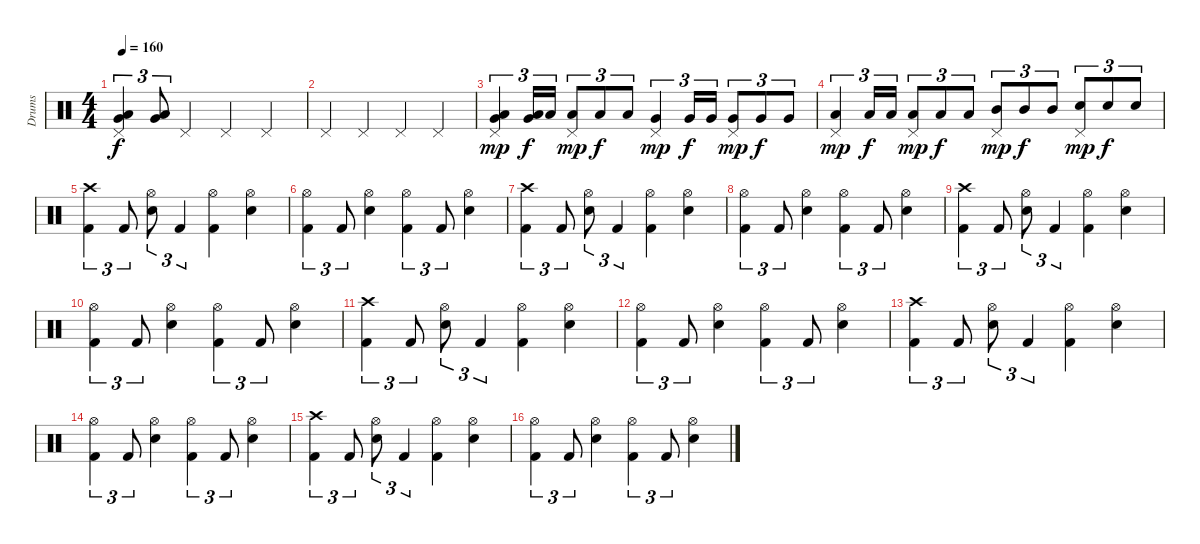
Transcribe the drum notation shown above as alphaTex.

\track ("Drums" "Drums") {instrument percussion}
\staff {score}
\articulation defaults
\ts (4 4)
\tempo 160
\clef neutral
\ks c
("Very Low Tom (hit)" "Low Floor Tom (hit)" "Pedal Hi-Hat (hit)").4{tu (3 2) dy f} ("Very Low Tom (hit)" "Low Floor Tom (hit)").8{tu (3 2)} "Pedal Hi-Hat (hit)".4 "Pedal Hi-Hat (hit)".4 "Pedal Hi-Hat (hit)".4 |
"Pedal Hi-Hat (hit)".4 "Pedal Hi-Hat (hit)".4 "Pedal Hi-Hat (hit)".4 "Pedal Hi-Hat (hit)".4 |
("Very Low Tom (hit)" "Low Floor Tom (hit)" "Pedal Hi-Hat (hit)").4{tu (3 2) dy mp} ("Very Low Tom (hit)" "Low Floor Tom (hit)").16{tu (3 2) dy f} "Low Floor Tom (hit)".16{tu (3 2)} ("Low Floor Tom (hit)" "Pedal Hi-Hat (hit)").8{tu (3 2) dy mp} "Low Floor Tom (hit)".8{tu (3 2) dy f} "Low Floor Tom (hit)".8{tu (3 2)} ("Very Low Tom (hit)" "Pedal Hi-Hat (hit)").4{tu (3 2) dy mp} "Very Low Tom (hit)".16{tu (3 2) dy f} "Very Low Tom (hit)".16{tu (3 2)} ("Very Low Tom (hit)" "Pedal Hi-Hat (hit)").8{tu (3 2) dy mp} "Very Low Tom (hit)".8{tu (3 2) dy f} "Very Low Tom (hit)".8{tu (3 2)} |
("Low Tom (hit)" "Pedal Hi-Hat (hit)").4{tu (3 2) dy mp} "Low Tom (hit)".16{tu (3 2) dy f} "Low Tom (hit)".16{tu (3 2)} ("Low Tom (hit)" "Pedal Hi-Hat (hit)").8{tu (3 2) dy mp} "Low Tom (hit)".8{tu (3 2) dy f} "Low Tom (hit)".8{tu (3 2)} ("Mid Tom (hit)" "Pedal Hi-Hat (hit)").8{tu (3 2) dy mp} "Mid Tom (hit)".8{tu (3 2) dy f} "Mid Tom (hit)".8{tu (3 2)} ("Snare (hit) 2" "Pedal Hi-Hat (hit)").8{tu (3 2) dy mp} "Snare (hit) 2".8{tu (3 2) dy f} "Snare (hit) 2".8{tu (3 2)} |
("Crash high (hit)" "Kick (hit) 2").4{tu (3 2)} "Kick (hit) 2".8{tu (3 2)} ("Hi-Hat (open)" "Snare (hit) 2").8{tu (3 2)} "Kick (hit) 2".4{tu (3 2)} ("Hi-Hat (open)" "Kick (hit) 2").4 ("Hi-Hat (open)" "Snare (hit) 2").4 |
("Hi-Hat (open)" "Kick (hit) 2").4{tu (3 2)} "Kick (hit) 2".8{tu (3 2)} ("Hi-Hat (open)" "Snare (hit) 2").4 ("Hi-Hat (open)" "Kick (hit) 2").4{tu (3 2)} "Kick (hit) 2".8{tu (3 2)} ("Hi-Hat (open)" "Snare (hit) 2").4 |
("Crash high (hit)" "Kick (hit) 2").4{tu (3 2)} "Kick (hit) 2".8{tu (3 2)} ("Hi-Hat (open)" "Snare (hit) 2").8{tu (3 2)} "Kick (hit) 2".4{tu (3 2)} ("Hi-Hat (open)" "Kick (hit) 2").4 ("Hi-Hat (open)" "Snare (hit) 2").4 |
("Hi-Hat (open)" "Kick (hit) 2").4{tu (3 2)} "Kick (hit) 2".8{tu (3 2)} ("Hi-Hat (open)" "Snare (hit) 2").4 ("Hi-Hat (open)" "Kick (hit) 2").4{tu (3 2)} "Kick (hit) 2".8{tu (3 2)} ("Hi-Hat (open)" "Snare (hit) 2").4 |
("Crash high (hit)" "Kick (hit) 2").4{tu (3 2)} "Kick (hit) 2".8{tu (3 2)} ("Hi-Hat (open)" "Snare (hit) 2").8{tu (3 2)} "Kick (hit) 2".4{tu (3 2)} ("Hi-Hat (open)" "Kick (hit) 2").4 ("Hi-Hat (open)" "Snare (hit) 2").4 |
("Hi-Hat (open)" "Kick (hit) 2").4{tu (3 2)} "Kick (hit) 2".8{tu (3 2)} ("Hi-Hat (open)" "Snare (hit) 2").4 ("Hi-Hat (open)" "Kick (hit) 2").4{tu (3 2)} "Kick (hit) 2".8{tu (3 2)} ("Hi-Hat (open)" "Snare (hit) 2").4 |
("Crash high (hit)" "Kick (hit) 2").4{tu (3 2)} "Kick (hit) 2".8{tu (3 2)} ("Hi-Hat (open)" "Snare (hit) 2").8{tu (3 2)} "Kick (hit) 2".4{tu (3 2)} ("Hi-Hat (open)" "Kick (hit) 2").4 ("Hi-Hat (open)" "Snare (hit) 2").4 |
("Hi-Hat (open)" "Kick (hit) 2").4{tu (3 2)} "Kick (hit) 2".8{tu (3 2)} ("Hi-Hat (open)" "Snare (hit) 2").4 ("Hi-Hat (open)" "Kick (hit) 2").4{tu (3 2)} "Kick (hit) 2".8{tu (3 2)} ("Hi-Hat (open)" "Snare (hit) 2").4 |
("Crash high (hit)" "Kick (hit) 2").4{tu (3 2)} "Kick (hit) 2".8{tu (3 2)} ("Hi-Hat (open)" "Snare (hit) 2").8{tu (3 2)} "Kick (hit) 2".4{tu (3 2)} ("Hi-Hat (open)" "Kick (hit) 2").4 ("Hi-Hat (open)" "Snare (hit) 2").4 |
("Hi-Hat (open)" "Kick (hit) 2").4{tu (3 2)} "Kick (hit) 2".8{tu (3 2)} ("Hi-Hat (open)" "Snare (hit) 2").4 ("Hi-Hat (open)" "Kick (hit) 2").4{tu (3 2)} "Kick (hit) 2".8{tu (3 2)} ("Hi-Hat (open)" "Snare (hit) 2").4 |
("Crash high (hit)" "Kick (hit) 2").4{tu (3 2)} "Kick (hit) 2".8{tu (3 2)} ("Hi-Hat (open)" "Snare (hit) 2").8{tu (3 2)} "Kick (hit) 2".4{tu (3 2)} ("Hi-Hat (open)" "Kick (hit) 2").4 ("Hi-Hat (open)" "Snare (hit) 2").4 |
("Hi-Hat (open)" "Kick (hit) 2").4{tu (3 2)} "Kick (hit) 2".8{tu (3 2)} ("Hi-Hat (open)" "Snare (hit) 2").4 ("Hi-Hat (open)" "Kick (hit) 2").4{tu (3 2)} "Kick (hit) 2".8{tu (3 2)} ("Hi-Hat (open)" "Snare (hit) 2").4
